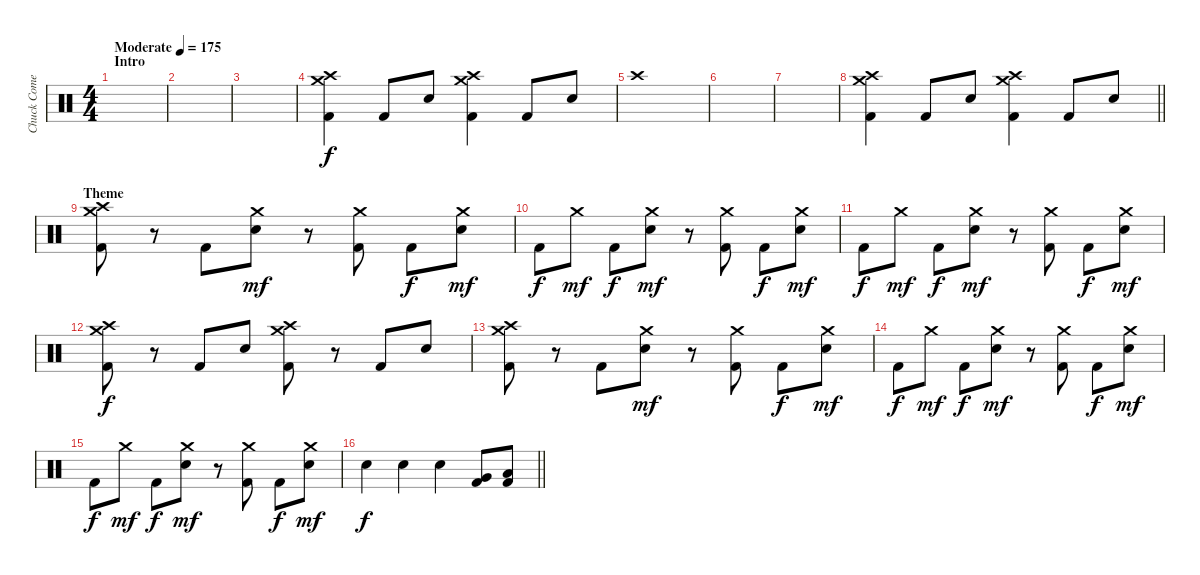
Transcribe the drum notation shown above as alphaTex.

\track ("Chuck Comeau" "Chuck Come") {instrument percussion}
\staff {score}
\articulation defaults
\ts (4 4)
\section ("" "Intro")
\tempo (175 "Moderate")
\clef neutral
\ks c
|
|
|
("Crash high (hit)" "Crash medium (hit)" "Kick (hit) 2").4 "Kick (hit) 2".8 "Electric Snare (hit)".8 ("Crash high (hit)" "Crash medium (hit)" "Kick (hit) 2").4 "Kick (hit) 2".8 "Electric Snare (hit)".8 |
"Crash high (hit)".1 |
|
|
\barLineRight lightlight
("Crash high (hit)" "Crash medium (hit)" "Kick (hit) 2").4 "Kick (hit) 2".8 "Electric Snare (hit)".8 ("Crash high (hit)" "Crash medium (hit)" "Kick (hit) 2").4 "Kick (hit) 2".8 "Electric Snare (hit)".8 |
\section ("" "Theme")
("Crash high (hit)" "Crash medium (hit)" "Kick (hit) 2").8 r.8 "Kick (hit) 2".8 ("Crash medium (hit)" "Electric Snare (hit)").8{dy mf} r.8 ("Crash medium (hit)" "Kick (hit) 2").8 "Kick (hit) 2".8{dy f} ("Crash medium (hit)" "Electric Snare (hit)").8{dy mf} |
"Kick (hit) 2".8{dy f} "Crash medium (hit)".8{dy mf} "Kick (hit) 2".8{dy f} ("Crash medium (hit)" "Electric Snare (hit)").8{dy mf} r.8 ("Crash medium (hit)" "Kick (hit) 2").8 "Kick (hit) 2".8{dy f} ("Crash medium (hit)" "Electric Snare (hit)").8{dy mf} |
"Kick (hit) 2".8{dy f} "Crash medium (hit)".8{dy mf} "Kick (hit) 2".8{dy f} ("Crash medium (hit)" "Electric Snare (hit)").8{dy mf} r.8 ("Crash medium (hit)" "Kick (hit) 2").8 "Kick (hit) 2".8{dy f} ("Crash medium (hit)" "Electric Snare (hit)").8{dy mf} |
("Crash high (hit)" "Crash medium (hit)" "Kick (hit) 2").8{dy f} r.8 "Kick (hit) 2".8 "Electric Snare (hit)".8 ("Crash high (hit)" "Crash medium (hit)" "Kick (hit) 2").8 r.8 "Kick (hit) 2".8 "Electric Snare (hit)".8 |
("Crash high (hit)" "Crash medium (hit)" "Kick (hit) 2").8 r.8 "Kick (hit) 2".8 ("Crash medium (hit)" "Electric Snare (hit)").8{dy mf} r.8 ("Crash medium (hit)" "Kick (hit) 2").8 "Kick (hit) 2".8{dy f} ("Crash medium (hit)" "Electric Snare (hit)").8{dy mf} |
"Kick (hit) 2".8{dy f} "Crash medium (hit)".8{dy mf} "Kick (hit) 2".8{dy f} ("Crash medium (hit)" "Electric Snare (hit)").8{dy mf} r.8 ("Crash medium (hit)" "Kick (hit) 2").8 "Kick (hit) 2".8{dy f} ("Crash medium (hit)" "Electric Snare (hit)").8{dy mf} |
"Kick (hit) 2".8{dy f} "Crash medium (hit)".8{dy mf} "Kick (hit) 2".8{dy f} ("Crash medium (hit)" "Electric Snare (hit)").8{dy mf} r.8 ("Crash medium (hit)" "Kick (hit) 2").8 "Kick (hit) 2".8{dy f} ("Crash medium (hit)" "Electric Snare (hit)").8{dy mf} |
\barLineRight lightlight "Electric Snare (hit)".4{dy f} "Electric Snare (hit)".4 "Electric Snare (hit)".4
("Very Low Tom (hit)" "Kick (hit) 2").8 ("Low Floor Tom (hit)" "Kick (hit) 2").8
